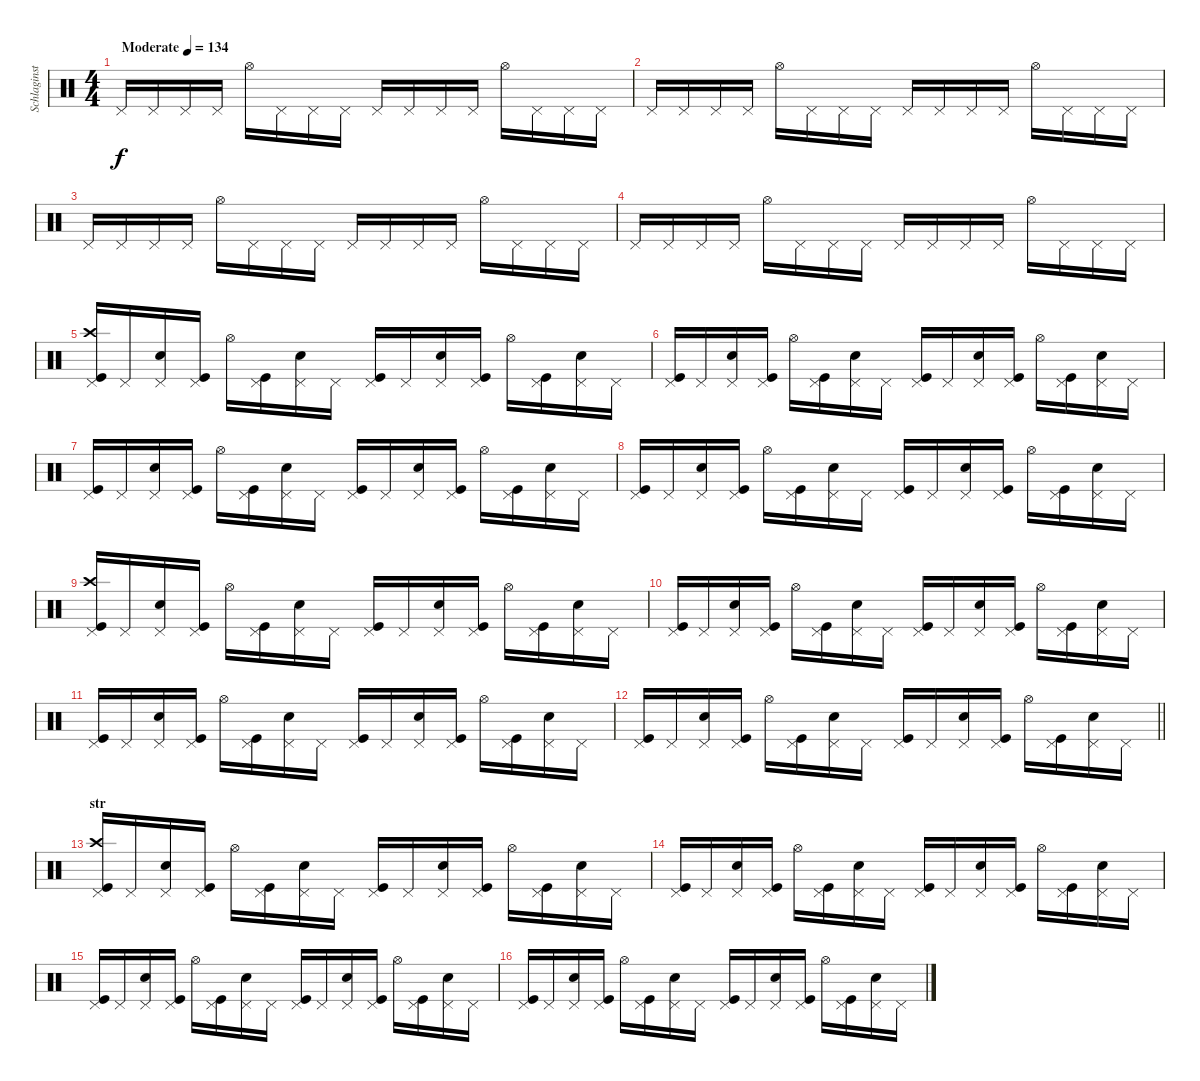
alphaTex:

\track ("Schlaginstrumente - Auswahl" "Schlaginst") {instrument percussion}
\staff {score}
\articulation defaults
\ts (4 4)
\tempo (134 "Moderate")
\clef neutral
\ks c "Pedal Hi-Hat (hit)".16{dy f} "Pedal Hi-Hat (hit)".16 "Pedal Hi-Hat (hit)".16 "Pedal Hi-Hat (hit)".16 "Hi-Hat (open)".16 "Pedal Hi-Hat (hit)".16 "Pedal Hi-Hat (hit)".16 "Pedal Hi-Hat (hit)".16 "Pedal Hi-Hat (hit)".16 "Pedal Hi-Hat (hit)".16 "Pedal Hi-Hat (hit)".16 "Pedal Hi-Hat (hit)".16 "Hi-Hat (open)".16 "Pedal Hi-Hat (hit)".16 "Pedal Hi-Hat (hit)".16 "Pedal Hi-Hat (hit)".16
|
"Pedal Hi-Hat (hit)".16 "Pedal Hi-Hat (hit)".16 "Pedal Hi-Hat (hit)".16 "Pedal Hi-Hat (hit)".16 "Hi-Hat (open)".16 "Pedal Hi-Hat (hit)".16 "Pedal Hi-Hat (hit)".16 "Pedal Hi-Hat (hit)".16 "Pedal Hi-Hat (hit)".16 "Pedal Hi-Hat (hit)".16 "Pedal Hi-Hat (hit)".16 "Pedal Hi-Hat (hit)".16 "Hi-Hat (open)".16 "Pedal Hi-Hat (hit)".16 "Pedal Hi-Hat (hit)".16 "Pedal Hi-Hat (hit)".16 |
"Pedal Hi-Hat (hit)".16 "Pedal Hi-Hat (hit)".16 "Pedal Hi-Hat (hit)".16 "Pedal Hi-Hat (hit)".16 "Hi-Hat (open)".16 "Pedal Hi-Hat (hit)".16 "Pedal Hi-Hat (hit)".16 "Pedal Hi-Hat (hit)".16 "Pedal Hi-Hat (hit)".16 "Pedal Hi-Hat (hit)".16 "Pedal Hi-Hat (hit)".16 "Pedal Hi-Hat (hit)".16 "Hi-Hat (open)".16 "Pedal Hi-Hat (hit)".16 "Pedal Hi-Hat (hit)".16 "Pedal Hi-Hat (hit)".16 |
"Pedal Hi-Hat (hit)".16 "Pedal Hi-Hat (hit)".16 "Pedal Hi-Hat (hit)".16 "Pedal Hi-Hat (hit)".16 "Hi-Hat (open)".16 "Pedal Hi-Hat (hit)".16 "Pedal Hi-Hat (hit)".16 "Pedal Hi-Hat (hit)".16 "Pedal Hi-Hat (hit)".16 "Pedal Hi-Hat (hit)".16 "Pedal Hi-Hat (hit)".16 "Pedal Hi-Hat (hit)".16 "Hi-Hat (open)".16 "Pedal Hi-Hat (hit)".16 "Pedal Hi-Hat (hit)".16 "Pedal Hi-Hat (hit)".16 |
("Pedal Hi-Hat (hit)" "Crash high (hit)" "Kick (hit)").16 "Pedal Hi-Hat (hit)".16 ("Pedal Hi-Hat (hit)" "Snare (hit) 2").16 ("Pedal Hi-Hat (hit)" "Kick (hit)").16 "Hi-Hat (open)".16 ("Pedal Hi-Hat (hit)" "Kick (hit)").16 ("Pedal Hi-Hat (hit)" "Snare (hit) 2").16 "Pedal Hi-Hat (hit)".16 ("Pedal Hi-Hat (hit)" "Kick (hit)").16 "Pedal Hi-Hat (hit)".16 ("Pedal Hi-Hat (hit)" "Snare (hit) 2").16 ("Pedal Hi-Hat (hit)" "Kick (hit)").16 "Hi-Hat (open)".16 ("Pedal Hi-Hat (hit)" "Kick (hit)").16 ("Pedal Hi-Hat (hit)" "Snare (hit) 2").16 "Pedal Hi-Hat (hit)".16 |
("Pedal Hi-Hat (hit)" "Kick (hit)").16 "Pedal Hi-Hat (hit)".16 ("Pedal Hi-Hat (hit)" "Snare (hit) 2").16 ("Pedal Hi-Hat (hit)" "Kick (hit)").16 "Hi-Hat (open)".16 ("Pedal Hi-Hat (hit)" "Kick (hit)").16 ("Pedal Hi-Hat (hit)" "Snare (hit) 2").16 "Pedal Hi-Hat (hit)".16 ("Pedal Hi-Hat (hit)" "Kick (hit)").16 "Pedal Hi-Hat (hit)".16 ("Pedal Hi-Hat (hit)" "Snare (hit) 2").16 ("Pedal Hi-Hat (hit)" "Kick (hit)").16 "Hi-Hat (open)".16 ("Pedal Hi-Hat (hit)" "Kick (hit)").16 ("Pedal Hi-Hat (hit)" "Snare (hit) 2").16 "Pedal Hi-Hat (hit)".16 |
("Pedal Hi-Hat (hit)" "Kick (hit)").16 "Pedal Hi-Hat (hit)".16 ("Pedal Hi-Hat (hit)" "Snare (hit) 2").16 ("Pedal Hi-Hat (hit)" "Kick (hit)").16 "Hi-Hat (open)".16 ("Pedal Hi-Hat (hit)" "Kick (hit)").16 ("Pedal Hi-Hat (hit)" "Snare (hit) 2").16 "Pedal Hi-Hat (hit)".16 ("Pedal Hi-Hat (hit)" "Kick (hit)").16 "Pedal Hi-Hat (hit)".16 ("Pedal Hi-Hat (hit)" "Snare (hit) 2").16 ("Pedal Hi-Hat (hit)" "Kick (hit)").16 "Hi-Hat (open)".16 ("Pedal Hi-Hat (hit)" "Kick (hit)").16 ("Pedal Hi-Hat (hit)" "Snare (hit) 2").16 "Pedal Hi-Hat (hit)".16 |
("Pedal Hi-Hat (hit)" "Kick (hit)").16 "Pedal Hi-Hat (hit)".16 ("Pedal Hi-Hat (hit)" "Snare (hit) 2").16 ("Pedal Hi-Hat (hit)" "Kick (hit)").16 "Hi-Hat (open)".16 ("Pedal Hi-Hat (hit)" "Kick (hit)").16 ("Pedal Hi-Hat (hit)" "Snare (hit) 2").16 "Pedal Hi-Hat (hit)".16 ("Pedal Hi-Hat (hit)" "Kick (hit)").16 "Pedal Hi-Hat (hit)".16 ("Pedal Hi-Hat (hit)" "Snare (hit) 2").16 ("Pedal Hi-Hat (hit)" "Kick (hit)").16 "Hi-Hat (open)".16 ("Pedal Hi-Hat (hit)" "Kick (hit)").16 ("Pedal Hi-Hat (hit)" "Snare (hit) 2").16 "Pedal Hi-Hat (hit)".16 |
("Pedal Hi-Hat (hit)" "Crash high (hit)" "Kick (hit)").16 "Pedal Hi-Hat (hit)".16 ("Pedal Hi-Hat (hit)" "Snare (hit) 2").16 ("Pedal Hi-Hat (hit)" "Kick (hit)").16 "Hi-Hat (open)".16 ("Pedal Hi-Hat (hit)" "Kick (hit)").16 ("Pedal Hi-Hat (hit)" "Snare (hit) 2").16 "Pedal Hi-Hat (hit)".16 ("Pedal Hi-Hat (hit)" "Kick (hit)").16 "Pedal Hi-Hat (hit)".16 ("Pedal Hi-Hat (hit)" "Snare (hit) 2").16 ("Pedal Hi-Hat (hit)" "Kick (hit)").16 "Hi-Hat (open)".16 ("Pedal Hi-Hat (hit)" "Kick (hit)").16 ("Pedal Hi-Hat (hit)" "Snare (hit) 2").16 "Pedal Hi-Hat (hit)".16 |
("Pedal Hi-Hat (hit)" "Kick (hit)").16 "Pedal Hi-Hat (hit)".16 ("Pedal Hi-Hat (hit)" "Snare (hit) 2").16 ("Pedal Hi-Hat (hit)" "Kick (hit)").16 "Hi-Hat (open)".16 ("Pedal Hi-Hat (hit)" "Kick (hit)").16 ("Pedal Hi-Hat (hit)" "Snare (hit) 2").16 "Pedal Hi-Hat (hit)".16 ("Pedal Hi-Hat (hit)" "Kick (hit)").16 "Pedal Hi-Hat (hit)".16 ("Pedal Hi-Hat (hit)" "Snare (hit) 2").16 ("Pedal Hi-Hat (hit)" "Kick (hit)").16 "Hi-Hat (open)".16 ("Pedal Hi-Hat (hit)" "Kick (hit)").16 ("Pedal Hi-Hat (hit)" "Snare (hit) 2").16 "Pedal Hi-Hat (hit)".16 |
("Pedal Hi-Hat (hit)" "Kick (hit)").16 "Pedal Hi-Hat (hit)".16 ("Pedal Hi-Hat (hit)" "Snare (hit) 2").16 ("Pedal Hi-Hat (hit)" "Kick (hit)").16 "Hi-Hat (open)".16 ("Pedal Hi-Hat (hit)" "Kick (hit)").16 ("Pedal Hi-Hat (hit)" "Snare (hit) 2").16 "Pedal Hi-Hat (hit)".16 ("Pedal Hi-Hat (hit)" "Kick (hit)").16 "Pedal Hi-Hat (hit)".16 ("Pedal Hi-Hat (hit)" "Snare (hit) 2").16 ("Pedal Hi-Hat (hit)" "Kick (hit)").16 "Hi-Hat (open)".16 ("Pedal Hi-Hat (hit)" "Kick (hit)").16 ("Pedal Hi-Hat (hit)" "Snare (hit) 2").16 "Pedal Hi-Hat (hit)".16 |
\barLineRight lightlight
("Pedal Hi-Hat (hit)" "Kick (hit)").16 "Pedal Hi-Hat (hit)".16 ("Pedal Hi-Hat (hit)" "Snare (hit) 2").16 ("Pedal Hi-Hat (hit)" "Kick (hit)").16 "Hi-Hat (open)".16 ("Pedal Hi-Hat (hit)" "Kick (hit)").16 ("Pedal Hi-Hat (hit)" "Snare (hit) 2").16 "Pedal Hi-Hat (hit)".16 ("Pedal Hi-Hat (hit)" "Kick (hit)").16 "Pedal Hi-Hat (hit)".16 ("Pedal Hi-Hat (hit)" "Snare (hit) 2").16 ("Pedal Hi-Hat (hit)" "Kick (hit)").16 "Hi-Hat (open)".16 ("Pedal Hi-Hat (hit)" "Kick (hit)").16 ("Pedal Hi-Hat (hit)" "Snare (hit) 2").16 "Pedal Hi-Hat (hit)".16 |
\section ("" "str")
("Pedal Hi-Hat (hit)" "Crash high (hit)" "Kick (hit)").16 "Pedal Hi-Hat (hit)".16 ("Pedal Hi-Hat (hit)" "Snare (hit) 2").16 ("Pedal Hi-Hat (hit)" "Kick (hit)").16 "Hi-Hat (open)".16 ("Pedal Hi-Hat (hit)" "Kick (hit)").16 ("Pedal Hi-Hat (hit)" "Snare (hit) 2").16 "Pedal Hi-Hat (hit)".16 ("Pedal Hi-Hat (hit)" "Kick (hit)").16 "Pedal Hi-Hat (hit)".16 ("Pedal Hi-Hat (hit)" "Snare (hit) 2").16 ("Pedal Hi-Hat (hit)" "Kick (hit)").16 "Hi-Hat (open)".16 ("Pedal Hi-Hat (hit)" "Kick (hit)").16 ("Pedal Hi-Hat (hit)" "Snare (hit) 2").16 "Pedal Hi-Hat (hit)".16 |
("Pedal Hi-Hat (hit)" "Kick (hit)").16 "Pedal Hi-Hat (hit)".16 ("Pedal Hi-Hat (hit)" "Snare (hit) 2").16 ("Pedal Hi-Hat (hit)" "Kick (hit)").16 "Hi-Hat (open)".16 ("Pedal Hi-Hat (hit)" "Kick (hit)").16 ("Pedal Hi-Hat (hit)" "Snare (hit) 2").16 "Pedal Hi-Hat (hit)".16 ("Pedal Hi-Hat (hit)" "Kick (hit)").16 "Pedal Hi-Hat (hit)".16 ("Pedal Hi-Hat (hit)" "Snare (hit) 2").16 ("Pedal Hi-Hat (hit)" "Kick (hit)").16 "Hi-Hat (open)".16 ("Pedal Hi-Hat (hit)" "Kick (hit)").16 ("Pedal Hi-Hat (hit)" "Snare (hit) 2").16 "Pedal Hi-Hat (hit)".16 |
("Pedal Hi-Hat (hit)" "Kick (hit)").16 "Pedal Hi-Hat (hit)".16 ("Pedal Hi-Hat (hit)" "Snare (hit) 2").16 ("Pedal Hi-Hat (hit)" "Kick (hit)").16 "Hi-Hat (open)".16 ("Pedal Hi-Hat (hit)" "Kick (hit)").16 ("Pedal Hi-Hat (hit)" "Snare (hit) 2").16 "Pedal Hi-Hat (hit)".16 ("Pedal Hi-Hat (hit)" "Kick (hit)").16 "Pedal Hi-Hat (hit)".16 ("Pedal Hi-Hat (hit)" "Snare (hit) 2").16 ("Pedal Hi-Hat (hit)" "Kick (hit)").16 "Hi-Hat (open)".16 ("Pedal Hi-Hat (hit)" "Kick (hit)").16 ("Pedal Hi-Hat (hit)" "Snare (hit) 2").16 "Pedal Hi-Hat (hit)".16 |
("Pedal Hi-Hat (hit)" "Kick (hit)").16 "Pedal Hi-Hat (hit)".16 ("Pedal Hi-Hat (hit)" "Snare (hit) 2").16 ("Pedal Hi-Hat (hit)" "Kick (hit)").16 "Hi-Hat (open)".16 ("Pedal Hi-Hat (hit)" "Kick (hit)").16 ("Pedal Hi-Hat (hit)" "Snare (hit) 2").16 "Pedal Hi-Hat (hit)".16 ("Pedal Hi-Hat (hit)" "Kick (hit)").16 "Pedal Hi-Hat (hit)".16 ("Pedal Hi-Hat (hit)" "Snare (hit) 2").16 ("Pedal Hi-Hat (hit)" "Kick (hit)").16 "Hi-Hat (open)".16 ("Pedal Hi-Hat (hit)" "Kick (hit)").16 ("Pedal Hi-Hat (hit)" "Snare (hit) 2").16 "Pedal Hi-Hat (hit)".16
